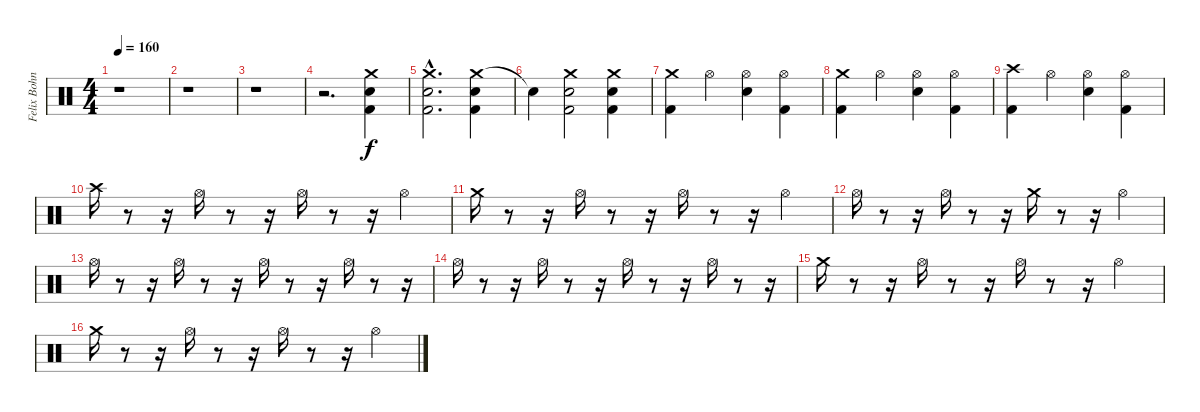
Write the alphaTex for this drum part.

\track ("Felix Bohnke" "Felix Bohn") {instrument percussion}
\staff {score}
\articulation defaults
\ts (4 4)
\tempo 160
\clef neutral
\ks c
r.1{dy f} |
r.1 |
r.1 |
r.2{d} ("Crash medium (hit)" "Electric Snare (hit)" "Kick (hit) 2").4 |
("Crash medium (hit)"{hac} "Electric Snare (hit)"{hac} "Kick (hit) 2"{hac}).2{d} ("Crash medium (hit)" "Electric Snare (hit)" "Kick (hit) 2").4 |
"Snare (hit)"{t}.4 ("Crash medium (hit)" "Electric Snare (hit)" "Kick (hit) 2").2 ("Crash medium (hit)" "Electric Snare (hit)" "Kick (hit) 2").4 |
("Crash medium (hit)" "Kick (hit) 2").4 "Hi-Hat (open)".4 ("Hi-Hat (open)" "Electric Snare (hit)").4 ("Hi-Hat (open)" "Kick (hit) 2").4 |
("Crash medium (hit)" "Kick (hit) 2").4 "Hi-Hat (open)".4 ("Hi-Hat (open)" "Electric Snare (hit)").4 ("Hi-Hat (open)" "Kick (hit) 2").4 |
("Crash high (hit)" "Kick (hit) 2").4 "Hi-Hat (open)".4 ("Hi-Hat (open)" "Electric Snare (hit)").4 ("Hi-Hat (open)" "Kick (hit) 2").4 |
"Crash high (hit)".16 r.8 r.16 "Hi-Hat (open)".16 r.8 r.16 "Hi-Hat (open)".16 r.8 r.16 "Hi-Hat (open)".4 |
"Crash medium (hit)".16 r.8 r.16 "Hi-Hat (open)".16 r.8 r.16 "Hi-Hat (open)".16 r.8 r.16 "Hi-Hat (open)".4 |
"Hi-Hat (open)".16 r.8 r.16 "Hi-Hat (open)".16 r.8 r.16 "Crash medium (hit)".16 r.8 r.16 "Hi-Hat (open)".4 |
"Hi-Hat (open)".16 r.8 r.16 "Hi-Hat (open)".16 r.8 r.16 "Hi-Hat (open)".16 r.8 r.16 "Hi-Hat (open)".16 r.8 r.16 |
"Hi-Hat (open)".16 r.8 r.16 "Hi-Hat (open)".16 r.8 r.16 "Hi-Hat (open)".16 r.8 r.16 "Hi-Hat (open)".16 r.8 r.16 |
"Crash medium (hit)".16 r.8 r.16 "Hi-Hat (open)".16 r.8 r.16 "Hi-Hat (open)".16 r.8 r.16 "Hi-Hat (open)".4 |
"Crash medium (hit)".16 r.8 r.16 "Hi-Hat (open)".16 r.8 r.16 "Hi-Hat (open)".16 r.8 r.16 "Hi-Hat (open)".4
